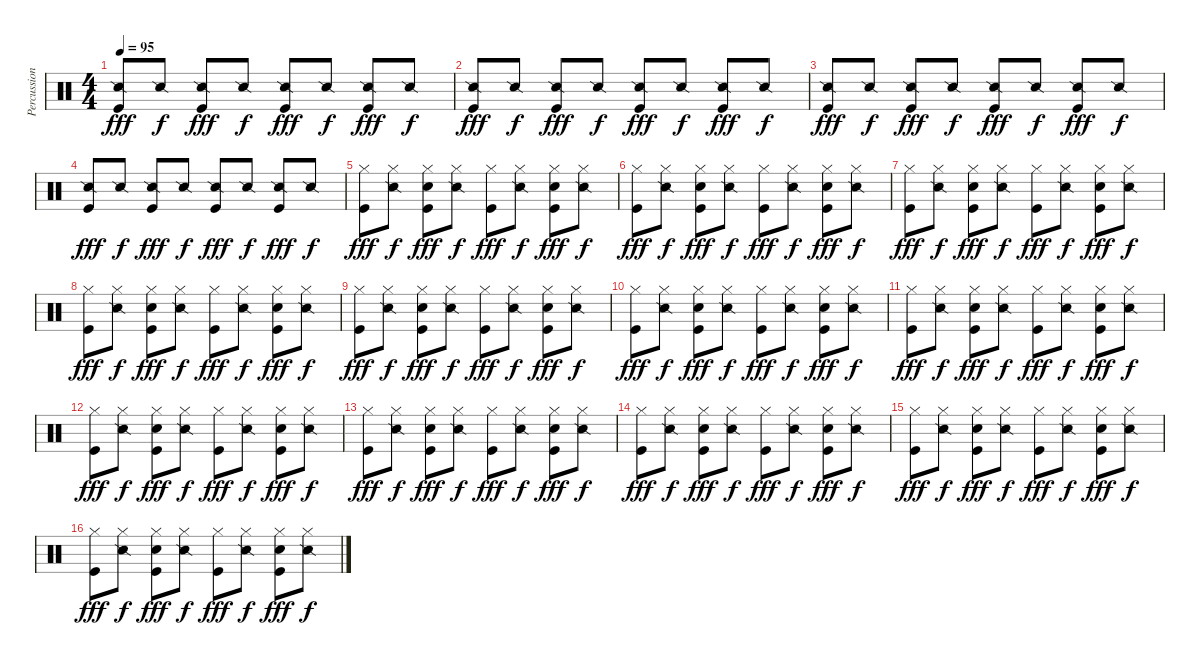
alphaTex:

\track ("Percussion" "Percussion") {instrument percussion}
\staff {score}
\articulation defaults
\ts (4 4)
\tempo 95
\clef neutral
\ks c
("Snare (side stick) 2" "Kick (hit)").8{dy fff} "Snare (side stick) 2".8{dy f} ("Snare (side stick) 2" "Kick (hit)").8{dy fff} "Snare (side stick) 2".8{dy f} ("Snare (side stick) 2" "Kick (hit)").8{dy fff} "Snare (side stick) 2".8{dy f} ("Snare (side stick) 2" "Kick (hit)").8{dy fff} "Snare (side stick) 2".8{dy f} |
("Snare (side stick) 2" "Kick (hit)").8{dy fff} "Snare (side stick) 2".8{dy f} ("Snare (side stick) 2" "Kick (hit)").8{dy fff} "Snare (side stick) 2".8{dy f} ("Snare (side stick) 2" "Kick (hit)").8{dy fff} "Snare (side stick) 2".8{dy f} ("Snare (side stick) 2" "Kick (hit)").8{dy fff} "Snare (side stick) 2".8{dy f} |
("Snare (side stick) 2" "Kick (hit)").8{dy fff} "Snare (side stick) 2".8{dy f} ("Snare (side stick) 2" "Kick (hit)").8{dy fff} "Snare (side stick) 2".8{dy f} ("Snare (side stick) 2" "Kick (hit)").8{dy fff} "Snare (side stick) 2".8{dy f} ("Snare (side stick) 2" "Kick (hit)").8{dy fff} "Snare (side stick) 2".8{dy f} |
("Snare (side stick) 2" "Kick (hit)").8{dy fff} "Snare (side stick) 2".8{dy f} ("Snare (side stick) 2" "Kick (hit)").8{dy fff} "Snare (side stick) 2".8{dy f} ("Snare (side stick) 2" "Kick (hit)").8{dy fff} "Snare (side stick) 2".8{dy f} ("Snare (side stick) 2" "Kick (hit)").8{dy fff} "Snare (side stick) 2".8{dy f} |
("Hi-Hat (closed)" "Kick (hit)").8{dy fff} ("Snare (side stick) 2" "Hi-Hat (closed)").8{dy f} ("Hi-Hat (closed)" "Snare (hit) 2" "Kick (hit)").8{dy fff} ("Snare (side stick) 2" "Hi-Hat (closed)").8{dy f} ("Hi-Hat (closed)" "Kick (hit)").8{dy fff} ("Snare (side stick) 2" "Hi-Hat (closed)").8{dy f} ("Hi-Hat (closed)" "Snare (hit) 2" "Kick (hit)").8{dy fff} ("Snare (side stick) 2" "Hi-Hat (closed)").8{dy f} |
("Hi-Hat (closed)" "Kick (hit)").8{dy fff} ("Snare (side stick) 2" "Hi-Hat (closed)").8{dy f} ("Hi-Hat (closed)" "Snare (hit) 2" "Kick (hit)").8{dy fff} ("Snare (side stick) 2" "Hi-Hat (closed)").8{dy f} ("Hi-Hat (closed)" "Kick (hit)").8{dy fff} ("Snare (side stick) 2" "Hi-Hat (closed)").8{dy f} ("Hi-Hat (closed)" "Snare (hit) 2" "Kick (hit)").8{dy fff} ("Snare (side stick) 2" "Hi-Hat (closed)").8{dy f} |
("Hi-Hat (closed)" "Kick (hit)").8{dy fff} ("Snare (side stick) 2" "Hi-Hat (closed)").8{dy f} ("Hi-Hat (closed)" "Snare (hit) 2" "Kick (hit)").8{dy fff} ("Snare (side stick) 2" "Hi-Hat (closed)").8{dy f} ("Hi-Hat (closed)" "Kick (hit)").8{dy fff} ("Snare (side stick) 2" "Hi-Hat (closed)").8{dy f} ("Hi-Hat (closed)" "Snare (hit) 2" "Kick (hit)").8{dy fff} ("Snare (side stick) 2" "Hi-Hat (closed)").8{dy f} |
("Hi-Hat (closed)" "Kick (hit)").8{dy fff} ("Snare (side stick) 2" "Hi-Hat (closed)").8{dy f} ("Hi-Hat (closed)" "Snare (hit) 2" "Kick (hit)").8{dy fff} ("Snare (side stick) 2" "Hi-Hat (closed)").8{dy f} ("Hi-Hat (closed)" "Kick (hit)").8{dy fff} ("Snare (side stick) 2" "Hi-Hat (closed)").8{dy f} ("Hi-Hat (closed)" "Snare (hit) 2" "Kick (hit)").8{dy fff} ("Snare (side stick) 2" "Hi-Hat (closed)").8{dy f} |
("Hi-Hat (closed)" "Kick (hit)").8{dy fff} ("Snare (side stick) 2" "Hi-Hat (closed)").8{dy f} ("Hi-Hat (closed)" "Snare (hit) 2" "Kick (hit)").8{dy fff} ("Snare (side stick) 2" "Hi-Hat (closed)").8{dy f} ("Hi-Hat (closed)" "Kick (hit)").8{dy fff} ("Snare (side stick) 2" "Hi-Hat (closed)").8{dy f} ("Hi-Hat (closed)" "Snare (hit) 2" "Kick (hit)").8{dy fff} ("Snare (side stick) 2" "Hi-Hat (closed)").8{dy f} |
("Hi-Hat (closed)" "Kick (hit)").8{dy fff} ("Snare (side stick) 2" "Hi-Hat (closed)").8{dy f} ("Hi-Hat (closed)" "Snare (hit) 2" "Kick (hit)").8{dy fff} ("Snare (side stick) 2" "Hi-Hat (closed)").8{dy f} ("Hi-Hat (closed)" "Kick (hit)").8{dy fff} ("Snare (side stick) 2" "Hi-Hat (closed)").8{dy f} ("Hi-Hat (closed)" "Snare (hit) 2" "Kick (hit)").8{dy fff} ("Snare (side stick) 2" "Hi-Hat (closed)").8{dy f} |
("Hi-Hat (closed)" "Kick (hit)").8{dy fff} ("Snare (side stick) 2" "Hi-Hat (closed)").8{dy f} ("Hi-Hat (closed)" "Snare (hit) 2" "Kick (hit)").8{dy fff} ("Snare (side stick) 2" "Hi-Hat (closed)").8{dy f} ("Hi-Hat (closed)" "Kick (hit)").8{dy fff} ("Snare (side stick) 2" "Hi-Hat (closed)").8{dy f} ("Hi-Hat (closed)" "Snare (hit) 2" "Kick (hit)").8{dy fff} ("Snare (side stick) 2" "Hi-Hat (closed)").8{dy f} |
("Hi-Hat (closed)" "Kick (hit)").8{dy fff} ("Snare (side stick) 2" "Hi-Hat (closed)").8{dy f} ("Hi-Hat (closed)" "Snare (hit) 2" "Kick (hit)").8{dy fff} ("Snare (side stick) 2" "Hi-Hat (closed)").8{dy f} ("Hi-Hat (closed)" "Kick (hit)").8{dy fff} ("Snare (side stick) 2" "Hi-Hat (closed)").8{dy f} ("Hi-Hat (closed)" "Snare (hit) 2" "Kick (hit)").8{dy fff} ("Snare (side stick) 2" "Hi-Hat (closed)").8{dy f} |
("Hi-Hat (closed)" "Kick (hit)").8{dy fff} ("Snare (side stick) 2" "Hi-Hat (closed)").8{dy f} ("Hi-Hat (closed)" "Snare (hit) 2" "Kick (hit)").8{dy fff} ("Snare (side stick) 2" "Hi-Hat (closed)").8{dy f} ("Hi-Hat (closed)" "Kick (hit)").8{dy fff} ("Snare (side stick) 2" "Hi-Hat (closed)").8{dy f} ("Hi-Hat (closed)" "Snare (hit) 2" "Kick (hit)").8{dy fff} ("Snare (side stick) 2" "Hi-Hat (closed)").8{dy f} |
("Hi-Hat (closed)" "Kick (hit)").8{dy fff} ("Snare (side stick) 2" "Hi-Hat (closed)").8{dy f} ("Hi-Hat (closed)" "Snare (hit) 2" "Kick (hit)").8{dy fff} ("Snare (side stick) 2" "Hi-Hat (closed)").8{dy f} ("Hi-Hat (closed)" "Kick (hit)").8{dy fff} ("Snare (side stick) 2" "Hi-Hat (closed)").8{dy f} ("Hi-Hat (closed)" "Snare (hit) 2" "Kick (hit)").8{dy fff} ("Snare (side stick) 2" "Hi-Hat (closed)").8{dy f} |
("Hi-Hat (closed)" "Kick (hit)").8{dy fff} ("Snare (side stick) 2" "Hi-Hat (closed)").8{dy f} ("Hi-Hat (closed)" "Snare (hit) 2" "Kick (hit)").8{dy fff} ("Snare (side stick) 2" "Hi-Hat (closed)").8{dy f} ("Hi-Hat (closed)" "Kick (hit)").8{dy fff} ("Snare (side stick) 2" "Hi-Hat (closed)").8{dy f} ("Hi-Hat (closed)" "Snare (hit) 2" "Kick (hit)").8{dy fff} ("Snare (side stick) 2" "Hi-Hat (closed)").8{dy f} |
("Hi-Hat (closed)" "Kick (hit)").8{dy fff} ("Snare (side stick) 2" "Hi-Hat (closed)").8{dy f} ("Hi-Hat (closed)" "Snare (hit) 2" "Kick (hit)").8{dy fff} ("Snare (side stick) 2" "Hi-Hat (closed)").8{dy f} ("Hi-Hat (closed)" "Kick (hit)").8{dy fff} ("Snare (side stick) 2" "Hi-Hat (closed)").8{dy f} ("Hi-Hat (closed)" "Snare (hit) 2" "Kick (hit)").8{dy fff} ("Snare (side stick) 2" "Hi-Hat (closed)").8{dy f}
